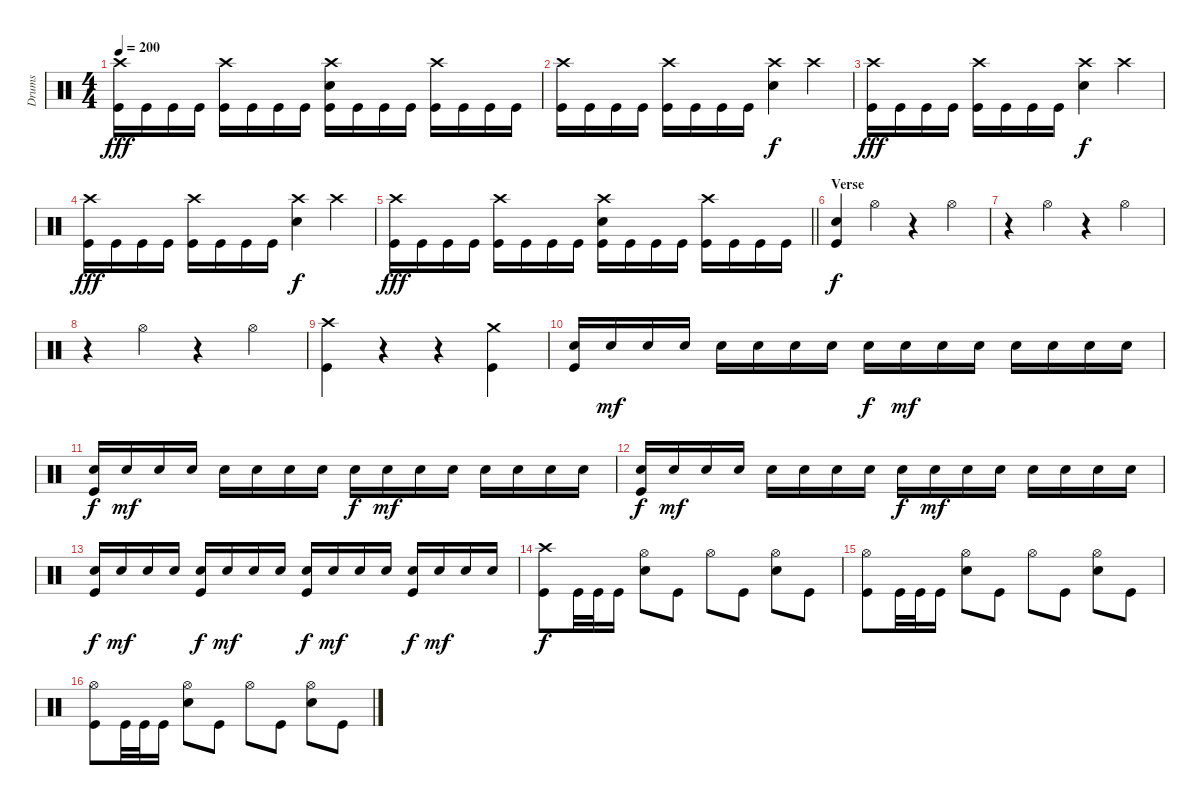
\track ("Drums" "Drums") {instrument percussion}
\staff {score}
\articulation defaults
\ts (4 4)
\tempo 200
\clef neutral
\ks c
("Crash high (hit)" "Kick (hit)").16{dy fff} "Kick (hit)".16 "Kick (hit)".16 "Kick (hit)".16 ("Crash high (hit)" "Kick (hit)").16 "Kick (hit)".16 "Kick (hit)".16 "Kick (hit)".16 ("Crash high (hit)" "Snare (hit) 2" "Kick (hit)").16 "Kick (hit)".16 "Kick (hit)".16 "Kick (hit)".16 ("Crash high (hit)" "Kick (hit)").16 "Kick (hit)".16 "Kick (hit)".16 "Kick (hit)".16 |
("Crash high (hit)" "Kick (hit)").16 "Kick (hit)".16 "Kick (hit)".16 "Kick (hit)".16 ("Crash high (hit)" "Kick (hit)").16 "Kick (hit)".16 "Kick (hit)".16 "Kick (hit)".16 ("Crash high (hit)" "Snare (hit) 2").4{dy f} "Crash high (hit)".4 |
("Crash high (hit)" "Kick (hit)").16{dy fff} "Kick (hit)".16 "Kick (hit)".16 "Kick (hit)".16 ("Crash high (hit)" "Kick (hit)").16 "Kick (hit)".16 "Kick (hit)".16 "Kick (hit)".16 ("Crash high (hit)" "Snare (hit) 2").4{dy f} "Crash high (hit)".4 |
("Crash high (hit)" "Kick (hit)").16{dy fff} "Kick (hit)".16 "Kick (hit)".16 "Kick (hit)".16 ("Crash high (hit)" "Kick (hit)").16 "Kick (hit)".16 "Kick (hit)".16 "Kick (hit)".16 ("Crash high (hit)" "Snare (hit) 2").4{dy f} "Crash high (hit)".4 |
\barLineRight lightlight
("Crash high (hit)" "Kick (hit)").16{dy fff} "Kick (hit)".16 "Kick (hit)".16 "Kick (hit)".16 ("Crash high (hit)" "Kick (hit)").16 "Kick (hit)".16 "Kick (hit)".16 "Kick (hit)".16 ("Crash high (hit)" "Snare (hit) 2" "Kick (hit)").16 "Kick (hit)".16 "Kick (hit)".16 "Kick (hit)".16 ("Crash high (hit)" "Kick (hit)").16 "Kick (hit)".16 "Kick (hit)".16 "Kick (hit)".16 |
\section ("" "Verse")
("Snare (hit) 2" "Kick (hit)").4{dy f} "Hi-Hat (open)".4 r.4 "Hi-Hat (open)".4 |
r.4 "Hi-Hat (open)".4 r.4 "Hi-Hat (open)".4 |
r.4 "Hi-Hat (open)".4 r.4 "Hi-Hat (open)".4 |
("Crash high (hit)" "Kick (hit)").4 r.4 r.4 ("Crash medium (hit)" "Kick (hit)").4 |
("Snare (hit) 2" "Kick (hit)").16 "Snare (hit) 2".16{dy mf} "Snare (hit) 2".16 "Snare (hit) 2".16 "Snare (hit) 2".16 "Snare (hit) 2".16 "Snare (hit) 2".16 "Snare (hit) 2".16 "Snare (hit) 2".16{dy f} "Snare (hit) 2".16{dy mf} "Snare (hit) 2".16 "Snare (hit) 2".16 "Snare (hit) 2".16 "Snare (hit) 2".16 "Snare (hit) 2".16 "Snare (hit) 2".16 |
("Snare (hit) 2" "Kick (hit)").16{dy f} "Snare (hit) 2".16{dy mf} "Snare (hit) 2".16 "Snare (hit) 2".16 "Snare (hit) 2".16 "Snare (hit) 2".16 "Snare (hit) 2".16 "Snare (hit) 2".16 "Snare (hit) 2".16{dy f} "Snare (hit) 2".16{dy mf} "Snare (hit) 2".16 "Snare (hit) 2".16 "Snare (hit) 2".16 "Snare (hit) 2".16 "Snare (hit) 2".16 "Snare (hit) 2".16 |
("Snare (hit) 2" "Kick (hit)").16{dy f} "Snare (hit) 2".16{dy mf} "Snare (hit) 2".16 "Snare (hit) 2".16 "Snare (hit) 2".16 "Snare (hit) 2".16 "Snare (hit) 2".16 "Snare (hit) 2".16 "Snare (hit) 2".16{dy f} "Snare (hit) 2".16{dy mf} "Snare (hit) 2".16 "Snare (hit) 2".16 "Snare (hit) 2".16 "Snare (hit) 2".16 "Snare (hit) 2".16 "Snare (hit) 2".16 |
("Snare (hit) 2" "Kick (hit)").16{dy f} "Snare (hit) 2".16{dy mf} "Snare (hit) 2".16 "Snare (hit) 2".16 ("Snare (hit) 2" "Kick (hit)").16{dy f} "Snare (hit) 2".16{dy mf} "Snare (hit) 2".16 "Snare (hit) 2".16 ("Snare (hit) 2" "Kick (hit)").16{dy f} "Snare (hit) 2".16{dy mf} "Snare (hit) 2".16 "Snare (hit) 2".16 ("Snare (hit) 2" "Kick (hit)").16{dy f} "Snare (hit) 2".16{dy mf} "Snare (hit) 2".16 "Snare (hit) 2".16 |
("Crash high (hit)" "Kick (hit)").8{dy f} "Kick (hit)".32 "Kick (hit)".32 "Kick (hit)".16 ("Hi-Hat (open)" "Snare (hit) 2").8 "Kick (hit)".8 "Hi-Hat (open)".8 "Kick (hit)".8 ("Hi-Hat (open)" "Snare (hit) 2").8 "Kick (hit)".8 |
("Hi-Hat (open)" "Kick (hit)").8 "Kick (hit)".32 "Kick (hit)".32 "Kick (hit)".16 ("Hi-Hat (open)" "Snare (hit) 2").8 "Kick (hit)".8 "Hi-Hat (open)".8 "Kick (hit)".8 ("Hi-Hat (open)" "Snare (hit) 2").8 "Kick (hit)".8 |
("Hi-Hat (open)" "Kick (hit)").8 "Kick (hit)".32 "Kick (hit)".32 "Kick (hit)".16 ("Hi-Hat (open)" "Snare (hit) 2").8 "Kick (hit)".8 "Hi-Hat (open)".8 "Kick (hit)".8 ("Hi-Hat (open)" "Snare (hit) 2").8 "Kick (hit)".8
